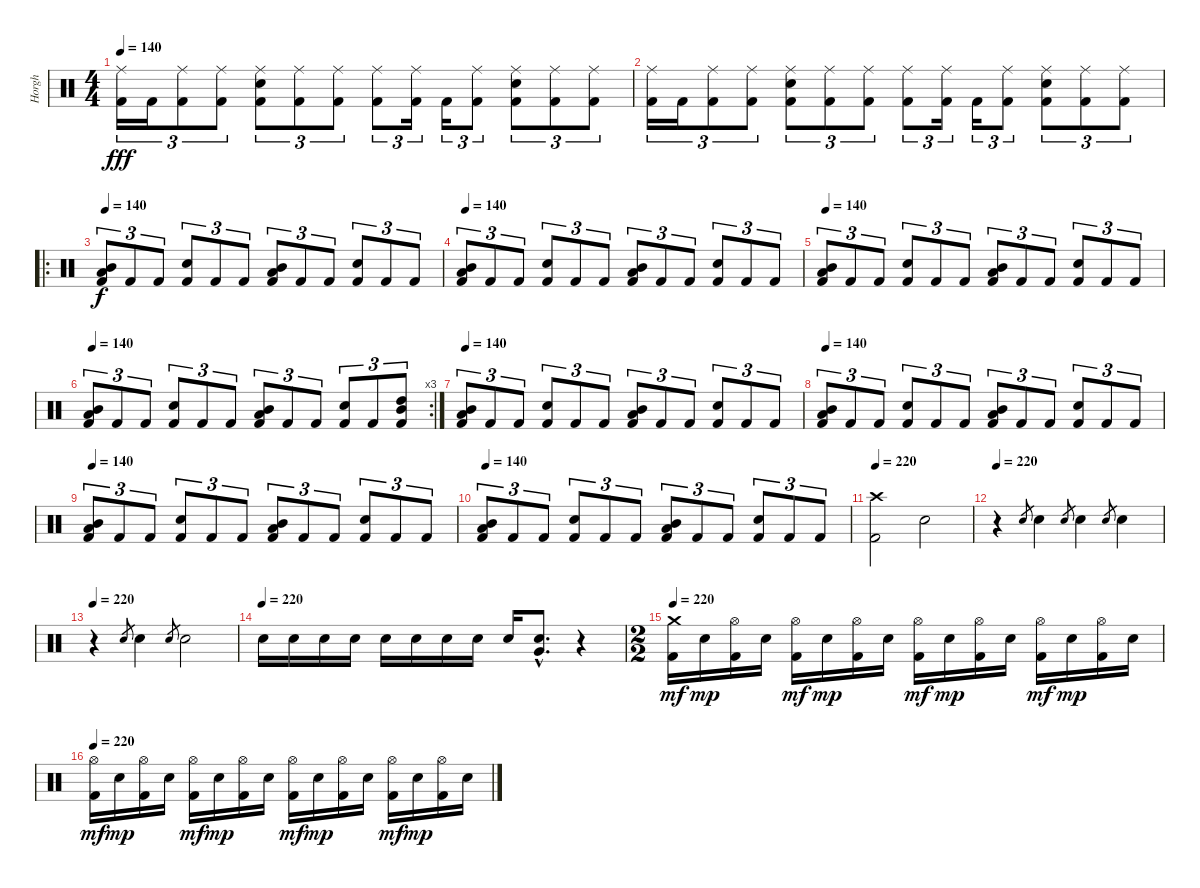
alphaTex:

\track ("Horgh" "Horgh") {instrument percussion}
\staff {score}
\articulation defaults
\ts (4 4)
\tempo 140
\clef neutral
\ks c
("Ride (middle)" "Kick (hit) 2").16{tu (3 2) dy fff} "Kick (hit) 2".16{tu (3 2)} ("Ride (middle)" "Kick (hit) 2").8{tu (3 2)} ("Ride (middle)" "Kick (hit) 2").8{tu (3 2)} ("Ride (middle)" "Electric Snare (hit)" "Kick (hit) 2").8{tu (3 2)} ("Ride (middle)" "Kick (hit) 2").8{tu (3 2)} ("Ride (middle)" "Kick (hit) 2").8{tu (3 2)} ("Ride (middle)" "Kick (hit) 2").8{tu (3 2)} ("Ride (middle)" "Kick (hit) 2").16{tu (3 2)} "Kick (hit) 2".16{tu (3 2)} ("Ride (middle)" "Kick (hit) 2").8{tu (3 2)} ("Ride (middle)" "Electric Snare (hit)" "Kick (hit) 2").8{tu (3 2)} ("Ride (middle)" "Kick (hit) 2").8{tu (3 2)} ("Ride (middle)" "Kick (hit) 2").8{tu (3 2)} |
("Ride (middle)" "Kick (hit) 2").16{tu (3 2)} "Kick (hit) 2".16{tu (3 2)} ("Ride (middle)" "Kick (hit) 2").8{tu (3 2)} ("Ride (middle)" "Kick (hit) 2").8{tu (3 2)} ("Ride (middle)" "Electric Snare (hit)" "Kick (hit) 2").8{tu (3 2)} ("Ride (middle)" "Kick (hit) 2").8{tu (3 2)} ("Ride (middle)" "Kick (hit) 2").8{tu (3 2)} ("Ride (middle)" "Kick (hit) 2").8{tu (3 2)} ("Ride (middle)" "Kick (hit) 2").16{tu (3 2)} "Kick (hit) 2".16{tu (3 2)} ("Ride (middle)" "Kick (hit) 2").8{tu (3 2)} ("Ride (middle)" "Electric Snare (hit)" "Kick (hit) 2").8{tu (3 2)} ("Ride (middle)" "Kick (hit) 2").8{tu (3 2)} ("Ride (middle)" "Kick (hit) 2").8{tu (3 2)} |
\ro
\tempo 140
("Low Tom (hit)" "Mid Tom (hit)" "Kick (hit) 2").8{tu (3 2) dy f} "Kick (hit) 2".8{tu (3 2)} "Kick (hit) 2".8{tu (3 2)} ("Electric Snare (hit)" "Kick (hit) 2").8{tu (3 2)} "Kick (hit) 2".8{tu (3 2)} "Kick (hit) 2".8{tu (3 2)} ("Low Tom (hit)" "Mid Tom (hit)" "Kick (hit) 2").8{tu (3 2)} "Kick (hit) 2".8{tu (3 2)} "Kick (hit) 2".8{tu (3 2)} ("Electric Snare (hit)" "Kick (hit) 2").8{tu (3 2)} "Kick (hit) 2".8{tu (3 2)} "Kick (hit) 2".8{tu (3 2)} |
\tempo 140
("Low Tom (hit)" "Mid Tom (hit)" "Kick (hit) 2").8{tu (3 2)} "Kick (hit) 2".8{tu (3 2)} "Kick (hit) 2".8{tu (3 2)} ("Electric Snare (hit)" "Kick (hit) 2").8{tu (3 2)} "Kick (hit) 2".8{tu (3 2)} "Kick (hit) 2".8{tu (3 2)} ("Low Tom (hit)" "Mid Tom (hit)" "Kick (hit) 2").8{tu (3 2)} "Kick (hit) 2".8{tu (3 2)} "Kick (hit) 2".8{tu (3 2)} ("Electric Snare (hit)" "Kick (hit) 2").8{tu (3 2)} "Kick (hit) 2".8{tu (3 2)} "Kick (hit) 2".8{tu (3 2)} |
\tempo 140
("Low Tom (hit)" "Mid Tom (hit)" "Kick (hit) 2").8{tu (3 2)} "Kick (hit) 2".8{tu (3 2)} "Kick (hit) 2".8{tu (3 2)} ("Electric Snare (hit)" "Kick (hit) 2").8{tu (3 2)} "Kick (hit) 2".8{tu (3 2)} "Kick (hit) 2".8{tu (3 2)} ("Low Tom (hit)" "Mid Tom (hit)" "Kick (hit) 2").8{tu (3 2)} "Kick (hit) 2".8{tu (3 2)} "Kick (hit) 2".8{tu (3 2)} ("Electric Snare (hit)" "Kick (hit) 2").8{tu (3 2)} "Kick (hit) 2".8{tu (3 2)} "Kick (hit) 2".8{tu (3 2)} |
\rc 3
\tempo 140
("Low Tom (hit)" "Mid Tom (hit)" "Kick (hit) 2").8{tu (3 2)} "Kick (hit) 2".8{tu (3 2)} "Kick (hit) 2".8{tu (3 2)} ("Electric Snare (hit)" "Kick (hit) 2").8{tu (3 2)} "Kick (hit) 2".8{tu (3 2)} "Kick (hit) 2".8{tu (3 2)} ("Low Tom (hit)" "Mid Tom (hit)" "Kick (hit) 2").8{tu (3 2)} "Kick (hit) 2".8{tu (3 2)} "Kick (hit) 2".8{tu (3 2)} ("Electric Snare (hit)" "Kick (hit) 2").8{tu (3 2)} "Kick (hit) 2".8{tu (3 2)} ("High Tom (hit)" "Mid Tom (hit)" "Kick (hit) 2").8{tu (3 2)} |
\tempo 140
("Low Tom (hit)" "Mid Tom (hit)" "Kick (hit) 2").8{tu (3 2)} "Kick (hit) 2".8{tu (3 2)} "Kick (hit) 2".8{tu (3 2)} ("Electric Snare (hit)" "Kick (hit) 2").8{tu (3 2)} "Kick (hit) 2".8{tu (3 2)} "Kick (hit) 2".8{tu (3 2)} ("Low Tom (hit)" "Mid Tom (hit)" "Kick (hit) 2").8{tu (3 2)} "Kick (hit) 2".8{tu (3 2)} "Kick (hit) 2".8{tu (3 2)} ("Electric Snare (hit)" "Kick (hit) 2").8{tu (3 2)} "Kick (hit) 2".8{tu (3 2)} "Kick (hit) 2".8{tu (3 2)} |
\tempo 140
("Low Tom (hit)" "Mid Tom (hit)" "Kick (hit) 2").8{tu (3 2)} "Kick (hit) 2".8{tu (3 2)} "Kick (hit) 2".8{tu (3 2)} ("Electric Snare (hit)" "Kick (hit) 2").8{tu (3 2)} "Kick (hit) 2".8{tu (3 2)} "Kick (hit) 2".8{tu (3 2)} ("Low Tom (hit)" "Mid Tom (hit)" "Kick (hit) 2").8{tu (3 2)} "Kick (hit) 2".8{tu (3 2)} "Kick (hit) 2".8{tu (3 2)} ("Electric Snare (hit)" "Kick (hit) 2").8{tu (3 2)} "Kick (hit) 2".8{tu (3 2)} "Kick (hit) 2".8{tu (3 2)} |
\tempo 140
("Low Tom (hit)" "Mid Tom (hit)" "Kick (hit) 2").8{tu (3 2)} "Kick (hit) 2".8{tu (3 2)} "Kick (hit) 2".8{tu (3 2)} ("Electric Snare (hit)" "Kick (hit) 2").8{tu (3 2)} "Kick (hit) 2".8{tu (3 2)} "Kick (hit) 2".8{tu (3 2)} ("Low Tom (hit)" "Mid Tom (hit)" "Kick (hit) 2").8{tu (3 2)} "Kick (hit) 2".8{tu (3 2)} "Kick (hit) 2".8{tu (3 2)} ("Electric Snare (hit)" "Kick (hit) 2").8{tu (3 2)} "Kick (hit) 2".8{tu (3 2)} "Kick (hit) 2".8{tu (3 2)} |
\tempo 140
("Low Tom (hit)" "Mid Tom (hit)" "Kick (hit) 2").8{tu (3 2)} "Kick (hit) 2".8{tu (3 2)} "Kick (hit) 2".8{tu (3 2)} ("Electric Snare (hit)" "Kick (hit) 2").8{tu (3 2)} "Kick (hit) 2".8{tu (3 2)} "Kick (hit) 2".8{tu (3 2)} ("Low Tom (hit)" "Mid Tom (hit)" "Kick (hit) 2").8{tu (3 2)} "Kick (hit) 2".8{tu (3 2)} "Kick (hit) 2".8{tu (3 2)} ("Electric Snare (hit)" "Kick (hit) 2").8{tu (3 2)} "Kick (hit) 2".8{tu (3 2)} "Kick (hit) 2".8{tu (3 2)} |
\tempo 220
("Crash high (hit)" "Kick (hit) 2").2 "Electric Snare (hit)".2 |
\tempo 220
r.4 "Electric Snare (hit)".8{gr} "Electric Snare (hit)".4 "Electric Snare (hit)".8{gr} "Electric Snare (hit)".4 "Electric Snare (hit)".8{gr} "Electric Snare (hit)".4 |
\tempo 220
r.4 "Electric Snare (hit)".8{gr} "Electric Snare (hit)".4 "Electric Snare (hit)".8{gr} "Electric Snare (hit)".2 |
\tempo (220)
"Electric Snare (hit)".16 "Electric Snare (hit)".16 "Electric Snare (hit)".16 "Electric Snare (hit)".16 "Electric Snare (hit)".16 "Electric Snare (hit)".16 "Electric Snare (hit)".16 "Electric Snare (hit)".16 "Electric Snare (hit)".16 ("Electric Snare (hit)"{hac} "Very Low Tom (hit)"{hac}).8{d} r.4 |
\ts (2 2)
\tempo 220
("Crash medium (hit)" "Kick (hit) 2").16{dy mf} "Electric Snare (hit)".16{dy mp} ("Hi-Hat (open)" "Kick (hit) 2").16 "Electric Snare (hit)".16 ("Hi-Hat (open)" "Kick (hit) 2").16{dy mf} "Electric Snare (hit)".16{dy mp} ("Hi-Hat (open)" "Kick (hit) 2").16 "Electric Snare (hit)".16 ("Hi-Hat (open)" "Kick (hit) 2").16{dy mf} "Electric Snare (hit)".16{dy mp} ("Hi-Hat (open)" "Kick (hit) 2").16 "Electric Snare (hit)".16 ("Hi-Hat (open)" "Kick (hit) 2").16{dy mf} "Electric Snare (hit)".16{dy mp} ("Hi-Hat (open)" "Kick (hit) 2").16 "Electric Snare (hit)".16 |
\tempo 220
("Hi-Hat (open)" "Kick (hit) 2").16{dy mf} "Electric Snare (hit)".16{dy mp} ("Hi-Hat (open)" "Kick (hit) 2").16 "Electric Snare (hit)".16 ("Hi-Hat (open)" "Kick (hit) 2").16{dy mf} "Electric Snare (hit)".16{dy mp} ("Hi-Hat (open)" "Kick (hit) 2").16 "Electric Snare (hit)".16 ("Hi-Hat (open)" "Kick (hit) 2").16{dy mf} "Electric Snare (hit)".16{dy mp} ("Hi-Hat (open)" "Kick (hit) 2").16 "Electric Snare (hit)".16 ("Hi-Hat (open)" "Kick (hit) 2").16{dy mf} "Electric Snare (hit)".16{dy mp} ("Hi-Hat (open)" "Kick (hit) 2").16 "Electric Snare (hit)".16
